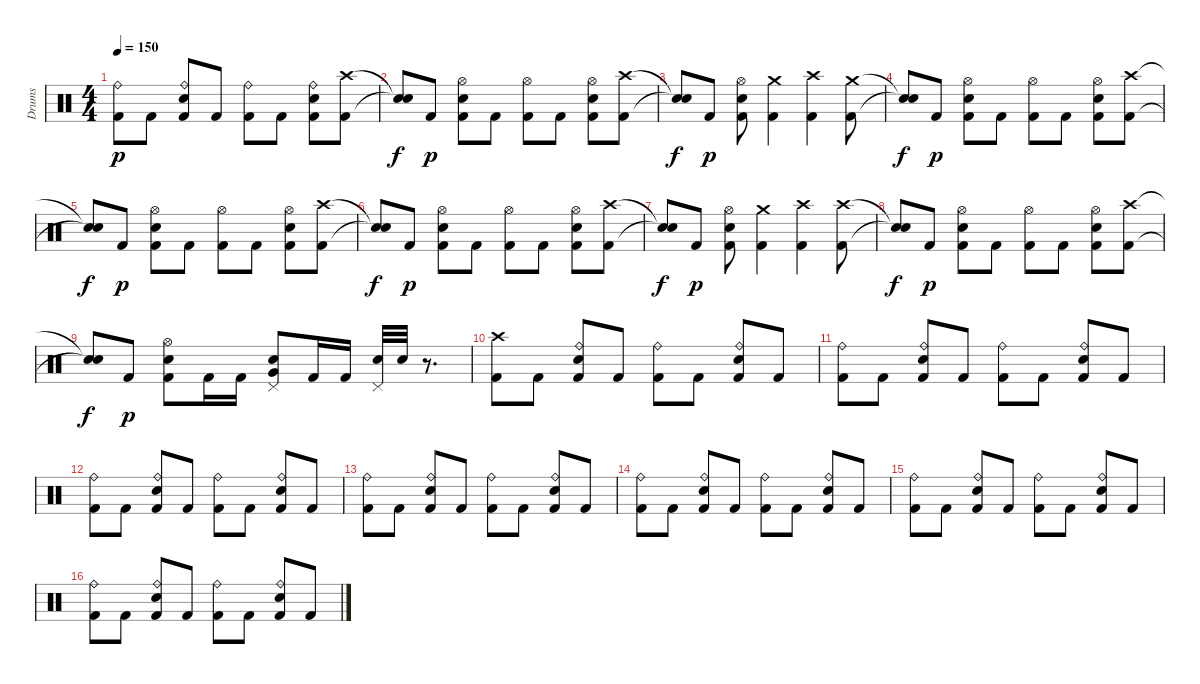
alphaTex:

\track ("Drums" "Drums") {instrument percussion}
\staff {score}
\articulation defaults
\ts (4 4)
\tempo 150
\clef neutral
\ks c
("Kick (hit) 2" "Ride (bell)").8{dy p} "Kick (hit) 2".8 ("Kick (hit) 2" "Snare (hit) 2" "Ride (bell)").8 "Kick (hit) 2".8 ("Kick (hit) 2" "Ride (bell)").8 "Kick (hit) 2".8 ("Kick (hit) 2" "Snare (hit) 2" "Ride (bell)").8 ("Kick (hit) 2" "Crash high (hit)").8 |
("Snare (hit)"{t} "Snare (hit)"{t}).8{dy f} "Kick (hit) 2".8{dy p} ("Kick (hit) 2" "Snare (hit) 2" "Hi-Hat (open)").8 "Kick (hit) 2".8 ("Kick (hit) 2" "Hi-Hat (open)").8 "Kick (hit) 2".8 ("Kick (hit) 2" "Snare (hit) 2" "Hi-Hat (open)").8 ("Kick (hit) 2" "Crash high (hit)").8 |
("Snare (hit)"{t} "Snare (hit)"{t}).8{dy f} "Kick (hit) 2".8{dy p} ("Kick (hit) 2" "Snare (hit) 2" "Hi-Hat (open)").8 ("Kick (hit) 2" "Crash medium (hit)").4 ("Kick (hit) 2" "Crash high (hit)").4 ("Kick (hit) 2" "Crash medium (hit)").8 |
("Snare (hit)"{t} "Snare (hit)"{t}).8{dy f} "Kick (hit) 2".8{dy p} ("Kick (hit) 2" "Snare (hit) 2" "Hi-Hat (open)").8 "Kick (hit) 2".8 ("Kick (hit) 2" "Hi-Hat (open)").8 "Kick (hit) 2".8 ("Kick (hit) 2" "Snare (hit) 2" "Hi-Hat (open)").8 ("Kick (hit) 2" "Crash high (hit)").8 |
("Snare (hit)"{t} "Snare (hit)"{t}).8{dy f} "Kick (hit) 2".8{dy p} ("Kick (hit) 2" "Snare (hit) 2" "Hi-Hat (open)").8 "Kick (hit) 2".8 ("Kick (hit) 2" "Hi-Hat (open)").8 "Kick (hit) 2".8 ("Kick (hit) 2" "Snare (hit) 2" "Hi-Hat (open)").8 ("Kick (hit) 2" "Crash high (hit)").8 |
("Snare (hit)"{t} "Snare (hit)"{t}).8{dy f} "Kick (hit) 2".8{dy p} ("Kick (hit) 2" "Snare (hit) 2" "Hi-Hat (open)").8 "Kick (hit) 2".8 ("Kick (hit) 2" "Hi-Hat (open)").8 "Kick (hit) 2".8 ("Kick (hit) 2" "Snare (hit) 2" "Hi-Hat (open)").8 ("Kick (hit) 2" "Crash high (hit)").8 |
("Snare (hit)"{t} "Snare (hit)"{t}).8{dy f} "Kick (hit) 2".8{dy p} ("Kick (hit) 2" "Snare (hit) 2" "Hi-Hat (open)").8 ("Kick (hit) 2" "Crash medium (hit)").4 ("Kick (hit) 2" "Crash high (hit)").4 ("Kick (hit) 2" "Crash high (hit)").8 |
("Snare (hit)"{t} "Snare (hit)"{t}).8{dy f} "Kick (hit) 2".8{dy p} ("Kick (hit) 2" "Snare (hit) 2" "Hi-Hat (open)").8 "Kick (hit) 2".8 ("Kick (hit) 2" "Hi-Hat (open)").8 "Kick (hit) 2".8 ("Kick (hit) 2" "Snare (hit) 2" "Hi-Hat (open)").8 ("Kick (hit) 2" "Crash high (hit)").8 |
("Snare (hit)"{t} "Snare (hit)"{t}).8{dy f} "Kick (hit) 2".8{dy p} ("Kick (hit) 2" "Snare (hit) 2" "Hi-Hat (open)").8 "Kick (hit) 2".16 "Kick (hit) 2".16 ("Snare (hit) 2" "Very Low Tom (hit)" "Pedal Hi-Hat (hit)").8 "Kick (hit) 2".16 "Kick (hit) 2".16 ("Snare (hit) 2" "Pedal Hi-Hat (hit)").32 "Snare (hit) 2".32 r.8{d} |
("Kick (hit) 2" "Crash high (hit)").8 "Kick (hit) 2".8 ("Kick (hit) 2" "Snare (hit) 2" "Ride (bell)").8 "Kick (hit) 2".8 ("Kick (hit) 2" "Ride (bell)").8 "Kick (hit) 2".8 ("Kick (hit) 2" "Snare (hit) 2" "Ride (bell)").8 "Kick (hit) 2".8 |
("Kick (hit) 2" "Ride (bell)").8 "Kick (hit) 2".8 ("Kick (hit) 2" "Snare (hit) 2" "Ride (bell)").8 "Kick (hit) 2".8 ("Kick (hit) 2" "Ride (bell)").8 "Kick (hit) 2".8 ("Kick (hit) 2" "Snare (hit) 2" "Ride (bell)").8 "Kick (hit) 2".8 |
("Kick (hit) 2" "Ride (bell)").8 "Kick (hit) 2".8 ("Kick (hit) 2" "Snare (hit) 2" "Ride (bell)").8 "Kick (hit) 2".8 ("Kick (hit) 2" "Ride (bell)").8 "Kick (hit) 2".8 ("Kick (hit) 2" "Snare (hit) 2" "Ride (bell)").8 "Kick (hit) 2".8 |
("Kick (hit) 2" "Ride (bell)").8 "Kick (hit) 2".8 ("Kick (hit) 2" "Snare (hit) 2" "Ride (bell)").8 "Kick (hit) 2".8 ("Kick (hit) 2" "Ride (bell)").8 "Kick (hit) 2".8 ("Kick (hit) 2" "Snare (hit) 2" "Ride (bell)").8 "Kick (hit) 2".8 |
("Kick (hit) 2" "Ride (bell)").8 "Kick (hit) 2".8 ("Kick (hit) 2" "Snare (hit) 2" "Ride (bell)").8 "Kick (hit) 2".8 ("Kick (hit) 2" "Ride (bell)").8 "Kick (hit) 2".8 ("Kick (hit) 2" "Snare (hit) 2" "Ride (bell)").8 "Kick (hit) 2".8 |
("Kick (hit) 2" "Ride (bell)").8 "Kick (hit) 2".8 ("Kick (hit) 2" "Snare (hit) 2" "Ride (bell)").8 "Kick (hit) 2".8 ("Kick (hit) 2" "Ride (bell)").8 "Kick (hit) 2".8 ("Kick (hit) 2" "Snare (hit) 2" "Ride (bell)").8 "Kick (hit) 2".8 |
("Kick (hit) 2" "Ride (bell)").8 "Kick (hit) 2".8 ("Kick (hit) 2" "Snare (hit) 2" "Ride (bell)").8 "Kick (hit) 2".8 ("Kick (hit) 2" "Ride (bell)").8 "Kick (hit) 2".8 ("Kick (hit) 2" "Snare (hit) 2" "Ride (bell)").8 "Kick (hit) 2".8
